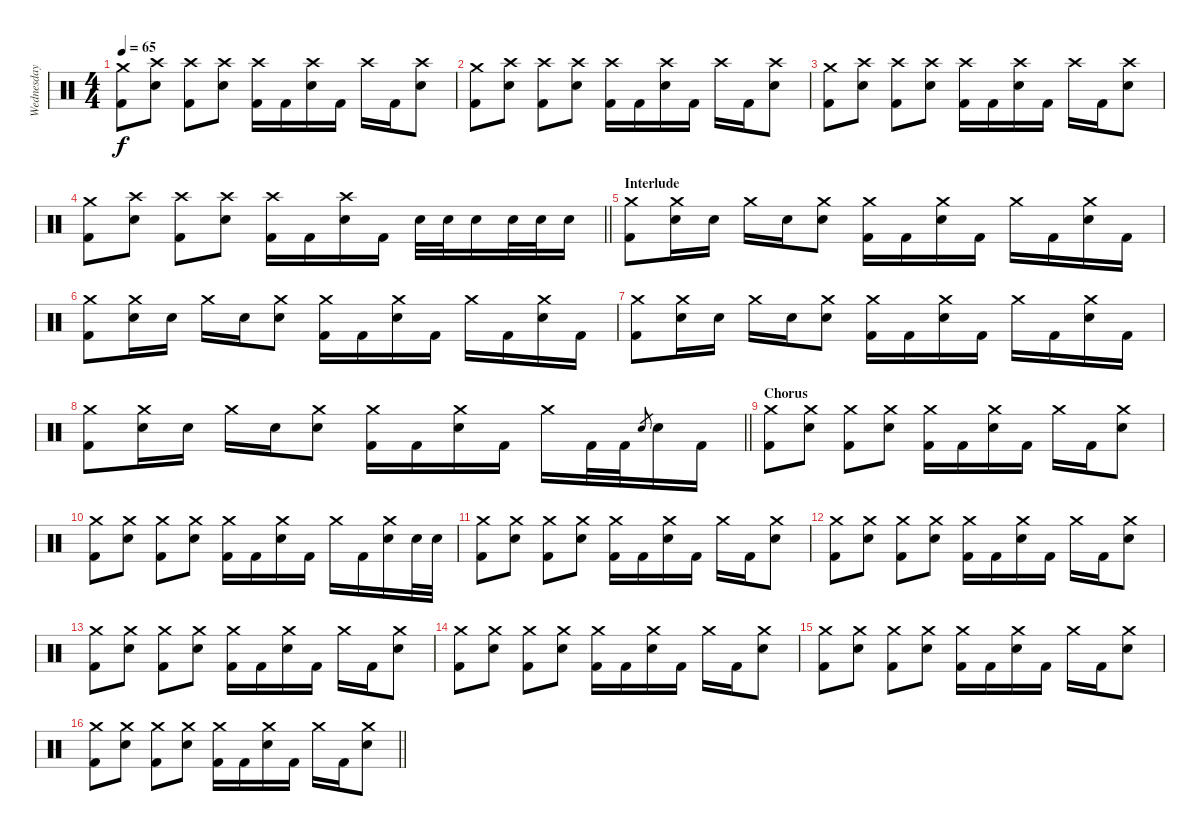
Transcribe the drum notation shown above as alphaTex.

\track ("Wednesday 13 - Drums" "Wednesday ") {instrument percussion}
\staff {score}
\articulation defaults
\ts (4 4)
\tempo 65
\clef neutral
\ks c
("Crash medium (hit)" "Kick (hit) 2").8{dy f} ("Crash high (hit)" "Electric Snare (hit)").8 ("Crash high (hit)" "Kick (hit) 2").8 ("Crash high (hit)" "Electric Snare (hit)").8 ("Crash high (hit)" "Kick (hit) 2").16 "Kick (hit) 2".16 ("Crash high (hit)" "Electric Snare (hit)").16 "Kick (hit) 2".16 "Crash high (hit)".16 "Kick (hit) 2".16 ("Crash high (hit)" "Electric Snare (hit)").8 |
("Crash medium (hit)" "Kick (hit) 2").8 ("Crash high (hit)" "Electric Snare (hit)").8 ("Crash high (hit)" "Kick (hit) 2").8 ("Crash high (hit)" "Electric Snare (hit)").8 ("Crash high (hit)" "Kick (hit) 2").16 "Kick (hit) 2".16 ("Crash high (hit)" "Electric Snare (hit)").16 "Kick (hit) 2".16 "Crash high (hit)".16 "Kick (hit) 2".16 ("Crash high (hit)" "Electric Snare (hit)").8 |
("Crash medium (hit)" "Kick (hit) 2").8 ("Crash high (hit)" "Electric Snare (hit)").8 ("Crash high (hit)" "Kick (hit) 2").8 ("Crash high (hit)" "Electric Snare (hit)").8 ("Crash high (hit)" "Kick (hit) 2").16 "Kick (hit) 2".16 ("Crash high (hit)" "Electric Snare (hit)").16 "Kick (hit) 2".16 "Crash high (hit)".16 "Kick (hit) 2".16 ("Crash high (hit)" "Electric Snare (hit)").8 |
\barLineRight lightlight
("Crash medium (hit)" "Kick (hit) 2").8 ("Crash high (hit)" "Electric Snare (hit)").8 ("Crash high (hit)" "Kick (hit) 2").8 ("Crash high (hit)" "Electric Snare (hit)").8 ("Crash high (hit)" "Kick (hit) 2").16 "Kick (hit) 2".16 ("Crash high (hit)" "Electric Snare (hit)").16 "Kick (hit) 2".16 "Electric Snare (hit)".32 "Electric Snare (hit)".32 "Electric Snare (hit)".16 "Electric Snare (hit)".32 "Electric Snare (hit)".32 "Electric Snare (hit)".16 |
\section ("" "Interlude")
("Crash medium (hit)" "Kick (hit) 2").8 ("Crash medium (hit)" "Electric Snare (hit)").16 "Electric Snare (hit)".16 "Crash medium (hit)".16 "Electric Snare (hit)".16 ("Crash medium (hit)" "Electric Snare (hit)").8 ("Crash medium (hit)" "Kick (hit) 2").16 "Kick (hit) 2".16 ("Crash medium (hit)" "Electric Snare (hit)").16 "Kick (hit) 2".16 "Crash medium (hit)".16 "Kick (hit) 2".16 ("Crash medium (hit)" "Electric Snare (hit)").16 "Kick (hit) 2".16 |
("Crash medium (hit)" "Kick (hit) 2").8 ("Crash medium (hit)" "Electric Snare (hit)").16 "Electric Snare (hit)".16 "Crash medium (hit)".16 "Electric Snare (hit)".16 ("Crash medium (hit)" "Electric Snare (hit)").8 ("Crash medium (hit)" "Kick (hit) 2").16 "Kick (hit) 2".16 ("Crash medium (hit)" "Electric Snare (hit)").16 "Kick (hit) 2".16 "Crash medium (hit)".16 "Kick (hit) 2".16 ("Crash medium (hit)" "Electric Snare (hit)").16 "Kick (hit) 2".16 |
("Crash medium (hit)" "Kick (hit) 2").8 ("Crash medium (hit)" "Electric Snare (hit)").16 "Electric Snare (hit)".16 "Crash medium (hit)".16 "Electric Snare (hit)".16 ("Crash medium (hit)" "Electric Snare (hit)").8 ("Crash medium (hit)" "Kick (hit) 2").16 "Kick (hit) 2".16 ("Crash medium (hit)" "Electric Snare (hit)").16 "Kick (hit) 2".16 "Crash medium (hit)".16 "Kick (hit) 2".16 ("Crash medium (hit)" "Electric Snare (hit)").16 "Kick (hit) 2".16 |
\barLineRight lightlight
("Crash medium (hit)" "Kick (hit) 2").8 ("Crash medium (hit)" "Electric Snare (hit)").16 "Electric Snare (hit)".16 "Crash medium (hit)".16 "Electric Snare (hit)".16 ("Crash medium (hit)" "Electric Snare (hit)").8 ("Crash medium (hit)" "Kick (hit) 2").16 "Kick (hit) 2".16 ("Crash medium (hit)" "Electric Snare (hit)").16 "Kick (hit) 2".16 "Crash medium (hit)".16 "Kick (hit) 2".32 "Kick (hit) 2".32 "Electric Snare (hit)".8{gr} "Electric Snare (hit)".16 "Kick (hit) 2".16 |
\section ("" "Chorus")
("Crash medium (hit)" "Kick (hit) 2").8 ("Crash medium (hit)" "Electric Snare (hit)").8 ("Crash medium (hit)" "Kick (hit) 2").8 ("Crash medium (hit)" "Electric Snare (hit)").8 ("Crash medium (hit)" "Kick (hit) 2").16 "Kick (hit) 2".16 ("Crash medium (hit)" "Electric Snare (hit)").16 "Kick (hit) 2".16 "Crash medium (hit)".16 "Kick (hit) 2".16 ("Crash medium (hit)" "Electric Snare (hit)").8 |
("Crash medium (hit)" "Kick (hit) 2").8 ("Crash medium (hit)" "Electric Snare (hit)").8 ("Crash medium (hit)" "Kick (hit) 2").8 ("Crash medium (hit)" "Electric Snare (hit)").8 ("Crash medium (hit)" "Kick (hit) 2").16 "Kick (hit) 2".16 ("Crash medium (hit)" "Electric Snare (hit)").16 "Kick (hit) 2".16 "Crash medium (hit)".16 "Kick (hit) 2".16 ("Crash medium (hit)" "Electric Snare (hit)").16 "Electric Snare (hit)".32 "Electric Snare (hit)".32 |
("Crash medium (hit)" "Kick (hit) 2").8 ("Crash medium (hit)" "Electric Snare (hit)").8 ("Crash medium (hit)" "Kick (hit) 2").8 ("Crash medium (hit)" "Electric Snare (hit)").8 ("Crash medium (hit)" "Kick (hit) 2").16 "Kick (hit) 2".16 ("Crash medium (hit)" "Electric Snare (hit)").16 "Kick (hit) 2".16 "Crash medium (hit)".16 "Kick (hit) 2".16 ("Crash medium (hit)" "Electric Snare (hit)").8 |
("Crash medium (hit)" "Kick (hit) 2").8 ("Crash medium (hit)" "Electric Snare (hit)").8 ("Crash medium (hit)" "Kick (hit) 2").8 ("Crash medium (hit)" "Electric Snare (hit)").8 ("Crash medium (hit)" "Kick (hit) 2").16 "Kick (hit) 2".16 ("Crash medium (hit)" "Electric Snare (hit)").16 "Kick (hit) 2".16 "Crash medium (hit)".16 "Kick (hit) 2".16 ("Crash medium (hit)" "Electric Snare (hit)").8 |
("Crash medium (hit)" "Kick (hit) 2").8 ("Crash medium (hit)" "Electric Snare (hit)").8 ("Crash medium (hit)" "Kick (hit) 2").8 ("Crash medium (hit)" "Electric Snare (hit)").8 ("Crash medium (hit)" "Kick (hit) 2").16 "Kick (hit) 2".16 ("Crash medium (hit)" "Electric Snare (hit)").16 "Kick (hit) 2".16 "Crash medium (hit)".16 "Kick (hit) 2".16 ("Crash medium (hit)" "Electric Snare (hit)").8 |
("Crash medium (hit)" "Kick (hit) 2").8 ("Crash medium (hit)" "Electric Snare (hit)").8 ("Crash medium (hit)" "Kick (hit) 2").8 ("Crash medium (hit)" "Electric Snare (hit)").8 ("Crash medium (hit)" "Kick (hit) 2").16 "Kick (hit) 2".16 ("Crash medium (hit)" "Electric Snare (hit)").16 "Kick (hit) 2".16 "Crash medium (hit)".16 "Kick (hit) 2".16 ("Crash medium (hit)" "Electric Snare (hit)").8 |
("Crash medium (hit)" "Kick (hit) 2").8 ("Crash medium (hit)" "Electric Snare (hit)").8 ("Crash medium (hit)" "Kick (hit) 2").8 ("Crash medium (hit)" "Electric Snare (hit)").8 ("Crash medium (hit)" "Kick (hit) 2").16 "Kick (hit) 2".16 ("Crash medium (hit)" "Electric Snare (hit)").16 "Kick (hit) 2".16 "Crash medium (hit)".16 "Kick (hit) 2".16 ("Crash medium (hit)" "Electric Snare (hit)").8 |
\barLineRight lightlight
("Crash medium (hit)" "Kick (hit) 2").8 ("Crash medium (hit)" "Electric Snare (hit)").8 ("Crash medium (hit)" "Kick (hit) 2").8 ("Crash medium (hit)" "Electric Snare (hit)").8 ("Crash medium (hit)" "Kick (hit) 2").16 "Kick (hit) 2".16 ("Crash medium (hit)" "Electric Snare (hit)").16 "Kick (hit) 2".16 "Crash medium (hit)".16 "Kick (hit) 2".16 ("Crash medium (hit)" "Electric Snare (hit)").8
